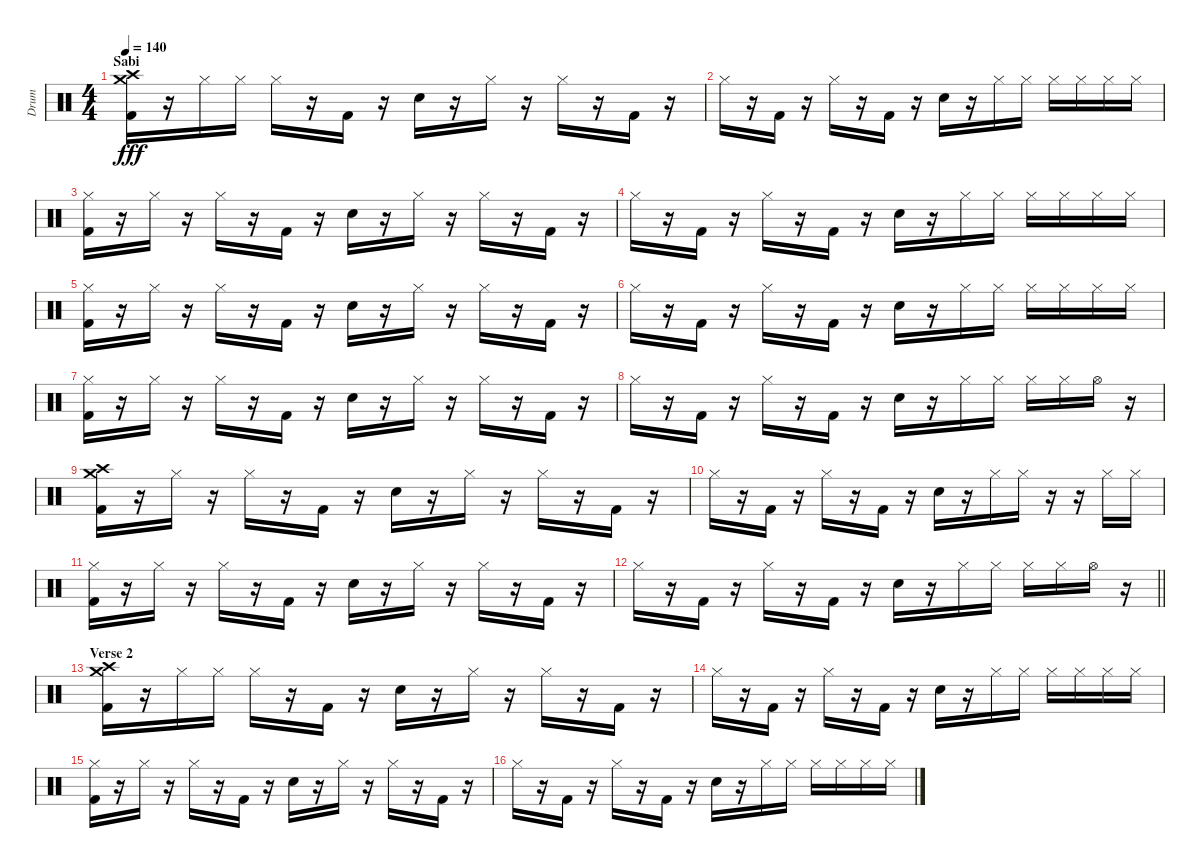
\track ("Drum" "Drum") {instrument percussion}
\staff {score}
\articulation defaults
\ts (4 4)
\section ("" "Sabi")
\tempo 140
\clef neutral
\ks c
("Crash medium (hit)" "Crash high (hit)" "Kick (hit) 2").16{dy fff} r.16 "Hi-Hat (closed)".16 "Hi-Hat (closed)".16 "Hi-Hat (closed)".16 r.16 "Kick (hit) 2".16 r.16 "Electric Snare (hit)".16 r.16 "Hi-Hat (closed)".16 r.16 "Hi-Hat (closed)".16 r.16 "Kick (hit) 2".16 r.16 |
"Hi-Hat (closed)".16 r.16 "Kick (hit) 2".16 r.16 "Hi-Hat (closed)".16 r.16 "Kick (hit) 2".16 r.16 "Electric Snare (hit)".16 r.16 "Hi-Hat (closed)".16 "Hi-Hat (closed)".16 "Hi-Hat (closed)".16 "Hi-Hat (closed)".16 "Hi-Hat (closed)".16 "Hi-Hat (closed)".16 |
("Hi-Hat (closed)" "Kick (hit) 2").16 r.16 "Hi-Hat (closed)".16 r.16 "Hi-Hat (closed)".16 r.16 "Kick (hit) 2".16 r.16 "Electric Snare (hit)".16 r.16 "Hi-Hat (closed)".16 r.16 "Hi-Hat (closed)".16 r.16 "Kick (hit) 2".16 r.16 |
"Hi-Hat (closed)".16 r.16 "Kick (hit) 2".16 r.16 "Hi-Hat (closed)".16 r.16 "Kick (hit) 2".16 r.16 "Electric Snare (hit)".16 r.16 "Hi-Hat (closed)".16 "Hi-Hat (closed)".16 "Hi-Hat (closed)".16 "Hi-Hat (closed)".16 "Hi-Hat (closed)".16 "Hi-Hat (closed)".16 |
("Hi-Hat (closed)" "Kick (hit) 2").16 r.16 "Hi-Hat (closed)".16 r.16 "Hi-Hat (closed)".16 r.16 "Kick (hit) 2".16 r.16 "Electric Snare (hit)".16 r.16 "Hi-Hat (closed)".16 r.16 "Hi-Hat (closed)".16 r.16 "Kick (hit) 2".16 r.16 |
"Hi-Hat (closed)".16 r.16 "Kick (hit) 2".16 r.16 "Hi-Hat (closed)".16 r.16 "Kick (hit) 2".16 r.16 "Electric Snare (hit)".16 r.16 "Hi-Hat (closed)".16 "Hi-Hat (closed)".16 "Hi-Hat (closed)".16 "Hi-Hat (closed)".16 "Hi-Hat (closed)".16 "Hi-Hat (closed)".16 |
("Hi-Hat (closed)" "Kick (hit) 2").16 r.16 "Hi-Hat (closed)".16 r.16 "Hi-Hat (closed)".16 r.16 "Kick (hit) 2".16 r.16 "Electric Snare (hit)".16 r.16 "Hi-Hat (closed)".16 r.16 "Hi-Hat (closed)".16 r.16 "Kick (hit) 2".16 r.16 |
"Hi-Hat (closed)".16 r.16 "Kick (hit) 2".16 r.16 "Hi-Hat (closed)".16 r.16 "Kick (hit) 2".16 r.16 "Electric Snare (hit)".16 r.16 "Hi-Hat (closed)".16 "Hi-Hat (closed)".16 "Hi-Hat (closed)".16 "Hi-Hat (closed)".16 "Hi-Hat (open)".16 r.16 |
("Crash medium (hit)" "Crash high (hit)" "Kick (hit) 2").16 r.16 "Hi-Hat (closed)".16 r.16 "Hi-Hat (closed)".16 r.16 "Kick (hit) 2".16 r.16 "Electric Snare (hit)".16 r.16 "Hi-Hat (closed)".16 r.16 "Hi-Hat (closed)".16 r.16 "Kick (hit) 2".16 r.16 |
"Hi-Hat (closed)".16 r.16 "Kick (hit) 2".16 r.16 "Hi-Hat (closed)".16 r.16 "Kick (hit) 2".16 r.16 "Electric Snare (hit)".16 r.16 "Hi-Hat (closed)".16 "Hi-Hat (closed)".16 r.16 r.16 "Hi-Hat (closed)".16 "Hi-Hat (closed)".16 |
("Hi-Hat (closed)" "Kick (hit) 2").16 r.16 "Hi-Hat (closed)".16 r.16 "Hi-Hat (closed)".16 r.16 "Kick (hit) 2".16 r.16 "Electric Snare (hit)".16 r.16 "Hi-Hat (closed)".16 r.16 "Hi-Hat (closed)".16 r.16 "Kick (hit) 2".16 r.16 |
\barLineRight lightlight "Hi-Hat (closed)".16
r.16 "Kick (hit) 2".16 r.16 "Hi-Hat (closed)".16 r.16 "Kick (hit) 2".16 r.16 "Electric Snare (hit)".16 r.16 "Hi-Hat (closed)".16 "Hi-Hat (closed)".16 "Hi-Hat (closed)".16 "Hi-Hat (closed)".16 "Hi-Hat (open)".16 r.16 |
\section ("" "Verse 2")
("Crash medium (hit)" "Crash high (hit)" "Kick (hit) 2").16 r.16 "Hi-Hat (closed)".16 "Hi-Hat (closed)".16 "Hi-Hat (closed)".16 r.16 "Kick (hit) 2".16 r.16 "Electric Snare (hit)".16 r.16 "Hi-Hat (closed)".16 r.16 "Hi-Hat (closed)".16 r.16 "Kick (hit) 2".16 r.16 |
"Hi-Hat (closed)".16 r.16 "Kick (hit) 2".16 r.16 "Hi-Hat (closed)".16 r.16 "Kick (hit) 2".16 r.16 "Electric Snare (hit)".16 r.16 "Hi-Hat (closed)".16 "Hi-Hat (closed)".16 "Hi-Hat (closed)".16 "Hi-Hat (closed)".16 "Hi-Hat (closed)".16 "Hi-Hat (closed)".16 |
("Hi-Hat (closed)" "Kick (hit) 2").16 r.16 "Hi-Hat (closed)".16 r.16 "Hi-Hat (closed)".16 r.16 "Kick (hit) 2".16 r.16 "Electric Snare (hit)".16 r.16 "Hi-Hat (closed)".16 r.16 "Hi-Hat (closed)".16 r.16 "Kick (hit) 2".16 r.16 |
"Hi-Hat (closed)".16 r.16 "Kick (hit) 2".16 r.16 "Hi-Hat (closed)".16 r.16 "Kick (hit) 2".16 r.16 "Electric Snare (hit)".16 r.16 "Hi-Hat (closed)".16 "Hi-Hat (closed)".16 "Hi-Hat (closed)".16 "Hi-Hat (closed)".16 "Hi-Hat (closed)".16 "Hi-Hat (closed)".16
